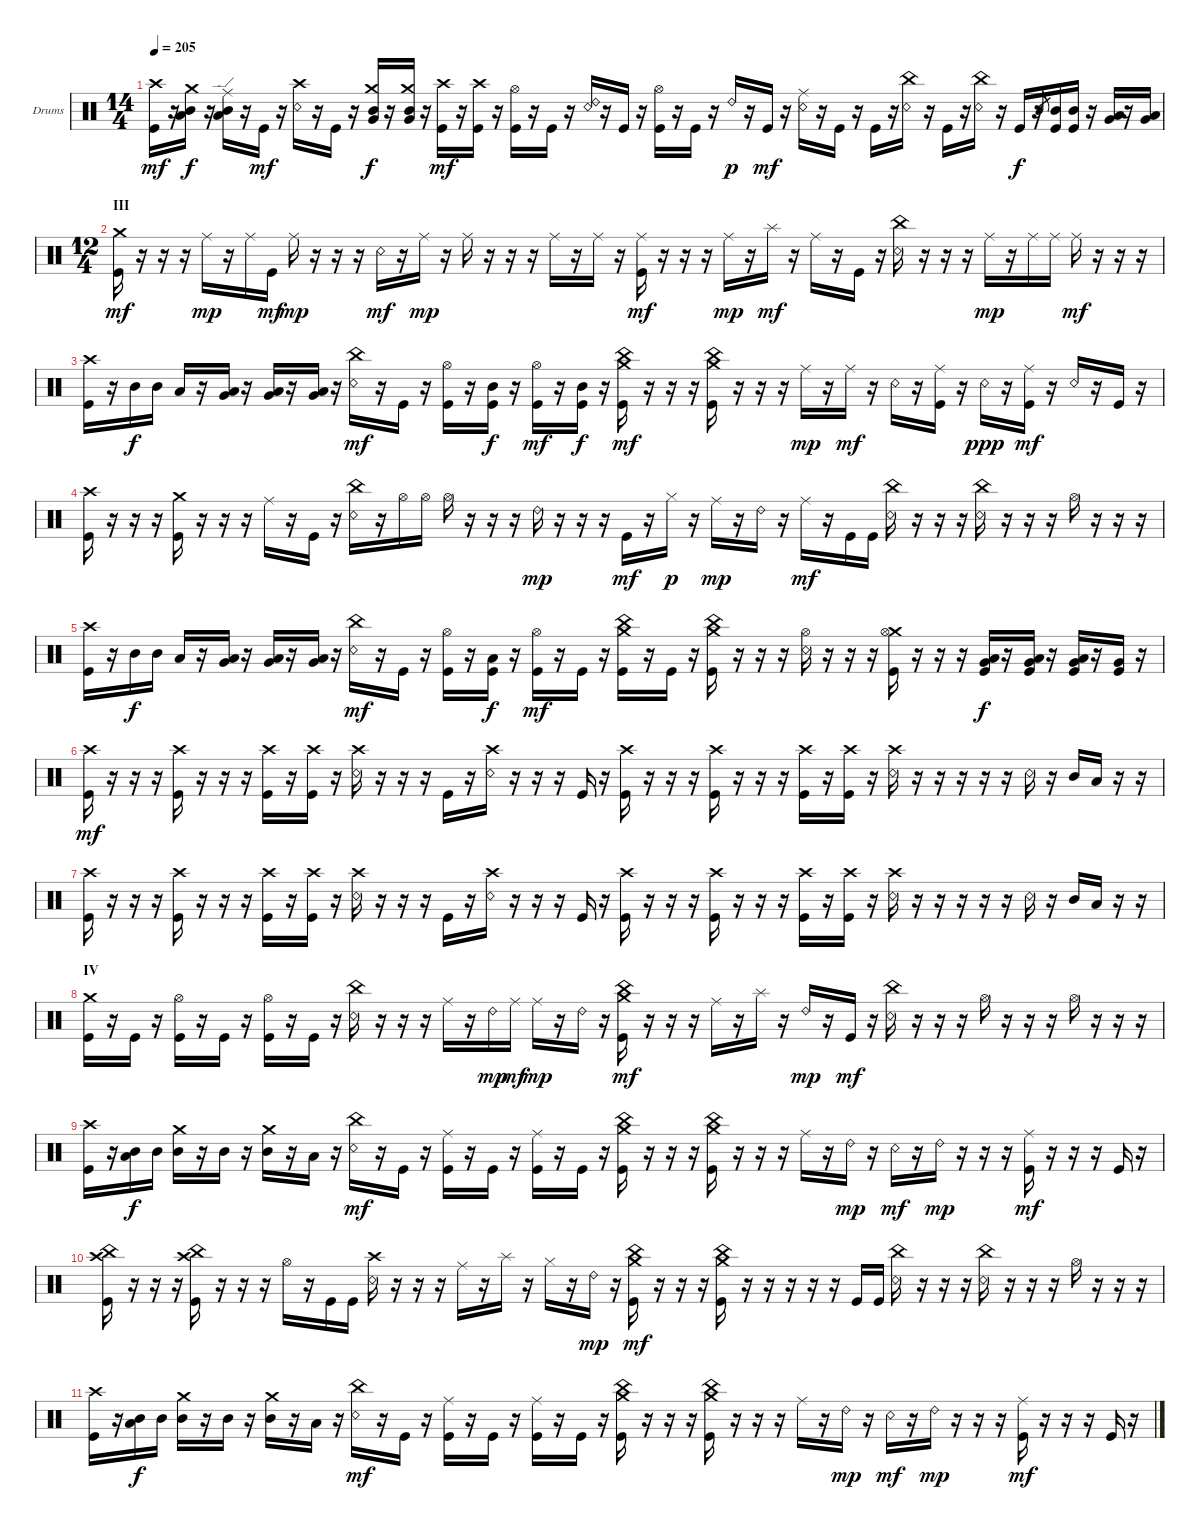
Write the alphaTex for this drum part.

\defaultSystemsLayout 4
\bracketExtendMode groupsimilarinstruments
\firstSystemTrackNameOrientation horizontal
\otherSystemsTrackNameOrientation horizontal
\track ("Drumkit" "Drums") {instrument percussion}
\staff {score}
\articulation defaults
\ts (14 4)
\tempo 205
\clef neutral
\ks c
("Kick (hit)" "Crash high (hit)").16{dy mf} r.16 ("Mid Tom (hit)" "Low Tom (hit)" "Crash medium (hit)").16{dy f} r.16 ("Mid Tom (hit)" "Low Tom (hit)" "Ride (edge)").16 r.16 "Kick (hit)".16{dy mf} r.16 ("Snare (rim shot)" "Crash high (hit)").16 r.16 "Kick (hit)".16 r.16 ("Mid Tom (hit)" "Very Low Tom (hit)" "Crash medium (hit)").16{dy f} r.16 ("Very Low Tom (hit)" "Mid Tom (hit)" "Crash medium (hit)").16 r.16 ("Kick (hit)" "Crash high (hit)").16{dy mf} r.16 ("Kick (hit)" "Crash high (hit)").16 r.16 ("Kick (hit)" "Hi-Hat (open)").16 r.16 "Kick (hit)".16 r.16 ("Snare (rim shot)" "Ride (bell) 2").16 r.16 "Kick (hit)".16 r.16 ("Kick (hit)" "Hi-Hat (open)").16 r.16 "Kick (hit)".16 r.16 "Ride (bell) 2".16{dy p} r.16 "Kick (hit)".16{dy mf} r.16 ("Snare (rim shot)" "Ride (middle)").16 r.16 "Kick (hit)".16 r.16 "Kick (hit)".16 r.16 ("Snare (rim shot)" "China (hit)").16 r.16 "Kick (hit)".16 r.16 ("Snare (rim shot)" "China (hit)").16 r.16 "Kick (hit)".16{dy f} r.16 "Mid Tom (hit)".8{gr} ("Mid Tom (hit)" "Kick (hit)").16 ("Mid Tom (hit)" "Kick (hit)").16 r.16 ("Very Low Tom (hit)" "Low Tom (hit)").16 r.16 ("Very Low Tom (hit)" "Low Tom (hit)").16 |
\ts (12 4)
\section ("" "III")
("Kick (hit)" "Crash medium (hit)").16{dy mf} r.16 r.16 r.16 "Ride (middle)".16{dy mp} r.16 "Ride (middle)".16 "Kick (hit)".16{dy mf} "Ride (middle)".16{dy mp} r.16 r.16 r.16 "Snare (rim shot)".16{dy mf} r.16 "Ride (middle)".16{dy mp} r.16 "Ride (middle)".16 r.16 r.16 r.16 "Ride (middle)".16 r.16 "Ride (middle)".16 r.16 ("Kick (hit)" "Ride (middle)").16{dy mf} r.16 r.16 r.16 "Ride (middle)".16{dy mp} r.16 "Splash (hit)".16{dy mf} r.16 "Ride (middle)".16 r.16 "Kick (hit)".16 r.16 ("Snare (rim shot)" "China (hit)").16 r.16 r.16 r.16 "Ride (middle)".16{dy mp} r.16 "Ride (middle)".16 "Ride (middle)".16 "Ride (middle)".16{dy mf} r.16 r.16 r.16 |
("Kick (hit)" "Crash high (hit)").16 r.16 "Mid Tom (hit)".16{dy f} "Mid Tom (hit)".16 "Low Tom (hit)".16 r.16 ("Low Tom (hit)" "Very Low Tom (hit)").16 r.16 ("Very Low Tom (hit)" "Low Tom (hit)").16 r.16 ("Very Low Tom (hit)" "Low Tom (hit)").16 r.16 ("Snare (rim shot)" "China (hit)").16{dy mf} r.16 "Kick (hit)".16 r.16 ("Kick (hit)" "Hi-Hat (open)").16 r.16 ("Kick (hit)" "Mid Tom (hit)").16{dy f} r.16 ("Kick (hit)" "Hi-Hat (open)").16{dy mf} r.16 ("Kick (hit)" "Mid Tom (hit)").16{dy f} r.16 ("Kick (hit)" "Crash medium (hit)" "China (hit)").16{dy mf} r.16 r.16 r.16 ("Kick (hit)" "China (hit)" "Crash medium (hit)").16 r.16 r.16 r.16 "Ride (middle)".16{dy mp} r.16 "Ride (middle)".16{dy mf} r.16 "Snare (rim shot)".16 r.16 ("Kick (hit)" "Ride (middle)").16 r.16 "Snare (rim shot)".16{dy ppp} r.16 ("Kick (hit)" "Ride (middle)").16{dy mf} r.16 "Snare (rim shot)".16 r.16 "Kick (hit)".16 r.16 |
("Kick (hit)" "Crash high (hit)").16 r.16 r.16 r.16 ("Kick (hit)" "Crash medium (hit)").16 r.16 r.16 r.16 "Ride (middle)".16 r.16 "Kick (hit)".16 r.16 ("Snare (rim shot)" "China (hit)").16 r.16 "Hi-Hat (open)".16 "Hi-Hat (open)".16 "Hi-Hat (open)".16 r.16 r.16 r.16 "Ride (bell) 2".16{dy mp} r.16 r.16 r.16 "Kick (hit)".16{dy mf} r.16 "Hi-Hat (closed)".16{dy p} r.16 "Ride (middle)".16{dy mp} r.16 "Ride (bell) 2".16 r.16 "Ride (middle)".16{dy mf} r.16 "Kick (hit)".16 "Kick (hit)".16 ("Snare (rim shot)" "China (hit)").16 r.16 r.16 r.16 ("Snare (rim shot)" "China (hit)").16 r.16 r.16 r.16 "Hi-Hat (open)".16 r.16 r.16 r.16 |
("Kick (hit)" "Crash high (hit)").16 r.16 "Mid Tom (hit)".16{dy f} "Mid Tom (hit)".16 "Low Tom (hit)".16 r.16 ("Low Tom (hit)" "Very Low Tom (hit)").16 r.16 ("Very Low Tom (hit)" "Low Tom (hit)").16 r.16 ("Very Low Tom (hit)" "Low Tom (hit)").16 r.16 ("Snare (rim shot)" "China (hit)").16{dy mf} r.16 "Kick (hit)".16 r.16 ("Kick (hit)" "Hi-Hat (open)").16 r.16 ("Kick (hit)" "Low Tom (hit)").16{dy f} r.16 ("Kick (hit)" "Hi-Hat (open)").16{dy mf} r.16 "Kick (hit)".16 r.16 ("Kick (hit)" "Crash medium (hit)" "China (hit)").16 r.16 "Kick (hit)".16 r.16 ("Kick (hit)" "Crash medium (hit)" "China (hit)").16 r.16 r.16 r.16 ("Snare (rim shot)" "Hi-Hat (open)").16 r.16 r.16 r.16 ("Kick (hit)" "Crash medium (hit)" "Hi-Hat (open)").16 r.16 r.16 r.16 ("Kick (hit)" "Very Low Tom (hit)" "Low Tom (hit)").16{dy f} r.16 ("Kick (hit)" "Very Low Tom (hit)" "Low Tom (hit)").16 r.16 ("Low Tom (hit)" "Very Low Tom (hit)" "Kick (hit)").16 r.16 ("Kick (hit)" "Very Low Tom (hit)").16 r.16 |
("Kick (hit)" "Crash high (hit)").16{dy mf} r.16 r.16 r.16 ("Kick (hit)" "Crash high (hit)").16 r.16 r.16 r.16 ("Kick (hit)" "Crash high (hit)").16 r.16 ("Kick (hit)" "Crash high (hit)").16 r.16 ("Snare (rim shot)" "Crash high (hit)").16 r.16 r.16 r.16 "Kick (hit)".16 r.16 ("Snare (rim shot)" "Crash high (hit)").16 r.16 r.16 r.16 "Kick (hit)".16 r.16 ("Kick (hit)" "Crash high (hit)").16 r.16 r.16 r.16 ("Kick (hit)" "Crash high (hit)").16 r.16 r.16 r.16 ("Kick (hit)" "Crash high (hit)").16 r.16 ("Kick (hit)" "Crash high (hit)").16 r.16 ("Snare (rim shot)" "Crash high (hit)").16 r.16 r.16 r.16 r.16 r.16 "Snare (rim shot)".16 r.16 "Mid Tom (hit)".16 "Low Tom (hit)".16 r.16 r.16 |
("Kick (hit)" "Crash high (hit)").16 r.16 r.16 r.16 ("Kick (hit)" "Crash high (hit)").16 r.16 r.16 r.16 ("Kick (hit)" "Crash high (hit)").16 r.16 ("Kick (hit)" "Crash high (hit)").16 r.16 ("Snare (rim shot)" "Crash high (hit)").16 r.16 r.16 r.16 "Kick (hit)".16 r.16 ("Snare (rim shot)" "Crash high (hit)").16 r.16 r.16 r.16 "Kick (hit)".16 r.16 ("Kick (hit)" "Crash high (hit)").16 r.16 r.16 r.16 ("Kick (hit)" "Crash high (hit)").16 r.16 r.16 r.16 ("Kick (hit)" "Crash high (hit)").16 r.16 ("Kick (hit)" "Crash high (hit)").16 r.16 ("Snare (rim shot)" "Crash high (hit)").16 r.16 r.16 r.16 r.16 r.16 "Snare (rim shot)".16 r.16 "Mid Tom (hit)".16 "Low Tom (hit)".16 r.16 r.16 |
\section ("" "IV")
("Kick (hit)" "Crash medium (hit)").16 r.16 "Kick (hit)".16 r.16 ("Kick (hit)" "Hi-Hat (open)").16 r.16 "Kick (hit)".16 r.16 ("Kick (hit)" "Hi-Hat (open)").16 r.16 "Kick (hit)".16 r.16 ("Snare (rim shot)" "China (hit)").16 r.16 r.16 r.16 "Ride (middle)".16 r.16 "Ride (bell) 2".16{dy mp} "Ride (middle)".16{dy mf} "Ride (middle)".16{dy mp} r.16 "Ride (bell) 2".16 r.16 ("Kick (hit)" "Crash medium (hit)" "China (hit)").16{dy mf} r.16 r.16 r.16 "Ride (middle)".16 r.16 "Splash (hit)".16 r.16 "Ride (bell) 2".16{dy mp} r.16 "Kick (hit)".16{dy mf} r.16 ("Snare (rim shot)" "China (hit)").16 r.16 r.16 r.16 "Hi-Hat (open)".16 r.16 r.16 r.16 "Hi-Hat (open)".16 r.16 r.16 r.16 |
("Kick (hit)" "Crash high (hit)").16 r.16 ("Mid Tom (hit)" "Low Tom (hit)").16{dy f} "Mid Tom (hit)".16 ("Mid Tom (hit)" "Crash medium (hit)").16 r.16 "Mid Tom (hit)".16 r.16 ("Mid Tom (hit)" "Crash medium (hit)").16 r.16 "Low Tom (hit)".16 r.16 ("Snare (rim shot)" "China (hit)").16{dy mf} r.16 "Kick (hit)".16 r.16 ("Kick (hit)" "Ride (middle)").16 r.16 "Kick (hit)".16 r.16 ("Kick (hit)" "Ride (middle)").16 r.16 "Kick (hit)".16 r.16 ("Kick (hit)" "China (hit)" "Crash medium (hit)").16 r.16 r.16 r.16 ("Kick (hit)" "China (hit)" "Crash medium (hit)").16 r.16 r.16 r.16 "Ride (middle)".16 r.16 "Ride (bell) 2".16{dy mp} r.16 "Snare (rim shot)".16{dy mf} r.16 "Ride (bell) 2".16{dy mp} r.16 r.16 r.16 ("Ride (middle)" "Kick (hit)").16{dy mf} r.16 r.16 r.16 "Kick (hit)".16 r.16 |
("Kick (hit)" "Crash high (hit)" "China (hit)").16 r.16 r.16 r.16 ("Kick (hit)" "Crash high (hit)" "China (hit)").16 r.16 r.16 r.16 "Hi-Hat (open)".16 r.16 "Kick (hit)".16 "Kick (hit)".16 ("Snare (rim shot)" "Crash high (hit)").16 r.16 r.16 r.16 "Ride (middle)".16 r.16 "Splash (hit)".16 r.16 "Hi-Hat (closed)".16 r.16 "Ride (bell) 2".16{dy mp} r.16 ("Kick (hit)" "Crash medium (hit)" "China (hit)").16{dy mf} r.16 r.16 r.16 ("Kick (hit)" "China (hit)" "Crash medium (hit)").16 r.16 r.16 r.16 r.16 r.16 "Kick (hit)".16 "Kick (hit)".16 ("Snare (rim shot)" "China (hit)").16 r.16 r.16 r.16 ("Snare (rim shot)" "China (hit)").16 r.16 r.16 r.16 "Hi-Hat (open)".16 r.16 r.16 r.16 |
("Kick (hit)" "Crash high (hit)").16 r.16 ("Mid Tom (hit)" "Low Tom (hit)").16{dy f} "Mid Tom (hit)".16 ("Mid Tom (hit)" "Crash medium (hit)").16 r.16 "Mid Tom (hit)".16 r.16 ("Mid Tom (hit)" "Crash medium (hit)").16 r.16 "Low Tom (hit)".16 r.16 ("Snare (rim shot)" "China (hit)").16{dy mf} r.16 "Kick (hit)".16 r.16 ("Kick (hit)" "Ride (middle)").16 r.16 "Kick (hit)".16 r.16 ("Kick (hit)" "Ride (middle)").16 r.16 "Kick (hit)".16 r.16 ("Kick (hit)" "China (hit)" "Crash medium (hit)").16 r.16 r.16 r.16 ("Kick (hit)" "China (hit)" "Crash medium (hit)").16 r.16 r.16 r.16 "Ride (middle)".16 r.16 "Ride (bell) 2".16{dy mp} r.16 "Snare (rim shot)".16{dy mf} r.16 "Ride (bell) 2".16{dy mp} r.16 r.16 r.16 ("Ride (middle)" "Kick (hit)").16{dy mf} r.16 r.16 r.16 "Kick (hit)".16 r.16
